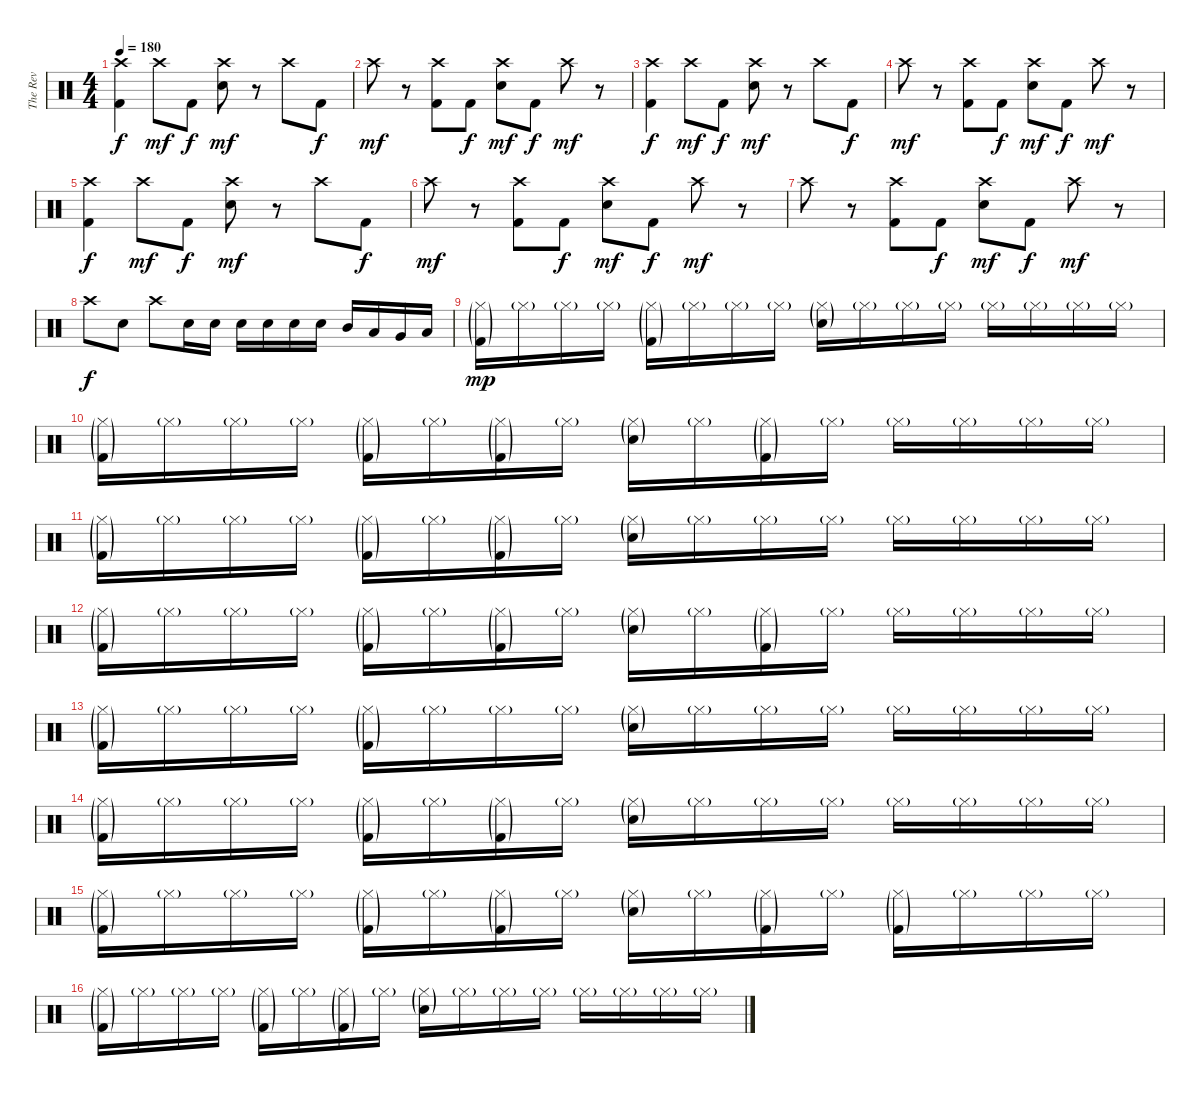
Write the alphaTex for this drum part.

\track ("The Rev" "The Rev") {instrument percussion}
\staff {score}
\articulation defaults
\ts (4 4)
\tempo 180
\clef neutral
\ks c
("Crash high (hit)" "Kick (hit) 2").4{dy f} "Crash high (hit)".8{dy mf} "Kick (hit) 2".8{dy f} ("Crash high (hit)" "Snare (hit) 2").8{dy mf} r.8 "Crash high (hit)".8 "Kick (hit) 2".8{dy f} |
"Crash high (hit)".8{dy mf} r.8 ("Crash high (hit)" "Kick (hit) 2").8 "Kick (hit) 2".8{dy f} ("Crash high (hit)" "Snare (hit) 2").8{dy mf} "Kick (hit) 2".8{dy f} "Crash high (hit)".8{dy mf} r.8 |
("Crash high (hit)" "Kick (hit) 2").4{dy f} "Crash high (hit)".8{dy mf} "Kick (hit) 2".8{dy f} ("Crash high (hit)" "Snare (hit) 2").8{dy mf} r.8 "Crash high (hit)".8 "Kick (hit) 2".8{dy f} |
"Crash high (hit)".8{dy mf} r.8 ("Crash high (hit)" "Kick (hit) 2").8 "Kick (hit) 2".8{dy f} ("Crash high (hit)" "Snare (hit) 2").8{dy mf} "Kick (hit) 2".8{dy f} "Crash high (hit)".8{dy mf} r.8 |
("Crash high (hit)" "Kick (hit) 2").4{dy f} "Crash high (hit)".8{dy mf} "Kick (hit) 2".8{dy f} ("Crash high (hit)" "Snare (hit) 2").8{dy mf} r.8 "Crash high (hit)".8 "Kick (hit) 2".8{dy f} |
"Crash high (hit)".8{dy mf} r.8 ("Crash high (hit)" "Kick (hit) 2").8 "Kick (hit) 2".8{dy f} ("Crash high (hit)" "Snare (hit) 2").8{dy mf} "Kick (hit) 2".8{dy f} "Crash high (hit)".8{dy mf} r.8 |
"Crash high (hit)".8 r.8 ("Crash high (hit)" "Kick (hit) 2").8 "Kick (hit) 2".8{dy f} ("Crash high (hit)" "Snare (hit) 2").8{dy mf} "Kick (hit) 2".8{dy f} "Crash high (hit)".8{dy mf} r.8 |
"Crash high (hit)".8{dy f} "Snare (hit) 2".8 "Crash high (hit)".8 "Snare (hit) 2".16 "Snare (hit) 2".16 "Snare (hit) 2".16 "Snare (hit) 2".16 "Snare (hit) 2".16 "Snare (hit) 2".16 "Mid Tom (hit)".16 "Low Tom (hit)".16 "Very Low Tom (hit)".16 "Low Floor Tom (hit)".16 |
("Hi-Hat (closed)"{g} "Kick (hit) 2"{g}).16{dy mp} "Hi-Hat (closed)"{g}.16 "Hi-Hat (closed)"{g}.16 "Hi-Hat (closed)"{g}.16 ("Hi-Hat (closed)"{g} "Kick (hit) 2"{g}).16 "Hi-Hat (closed)"{g}.16 "Hi-Hat (closed)"{g}.16 "Hi-Hat (closed)"{g}.16 ("Hi-Hat (closed)"{g} "Snare (hit) 2"{g}).16 "Hi-Hat (closed)"{g}.16 "Hi-Hat (closed)"{g}.16 "Hi-Hat (closed)"{g}.16 "Hi-Hat (closed)"{g}.16 "Hi-Hat (closed)"{g}.16 "Hi-Hat (closed)"{g}.16 "Hi-Hat (closed)"{g}.16 |
("Hi-Hat (closed)"{g} "Kick (hit) 2"{g}).16 "Hi-Hat (closed)"{g}.16 "Hi-Hat (closed)"{g}.16 "Hi-Hat (closed)"{g}.16 ("Hi-Hat (closed)"{g} "Kick (hit) 2"{g}).16 "Hi-Hat (closed)"{g}.16 ("Hi-Hat (closed)"{g} "Kick (hit) 2"{g}).16 "Hi-Hat (closed)"{g}.16 ("Hi-Hat (closed)"{g} "Snare (hit) 2"{g}).16 "Hi-Hat (closed)"{g}.16 ("Hi-Hat (closed)"{g} "Kick (hit) 2"{g}).16 "Hi-Hat (closed)"{g}.16 "Hi-Hat (closed)"{g}.16 "Hi-Hat (closed)"{g}.16 "Hi-Hat (closed)"{g}.16 "Hi-Hat (closed)"{g}.16 |
("Hi-Hat (closed)"{g} "Kick (hit) 2"{g}).16 "Hi-Hat (closed)"{g}.16 "Hi-Hat (closed)"{g}.16 "Hi-Hat (closed)"{g}.16 ("Hi-Hat (closed)"{g} "Kick (hit) 2"{g}).16 "Hi-Hat (closed)"{g}.16 ("Hi-Hat (closed)"{g} "Kick (hit) 2"{g}).16 "Hi-Hat (closed)"{g}.16 ("Hi-Hat (closed)"{g} "Snare (hit) 2"{g}).16 "Hi-Hat (closed)"{g}.16 "Hi-Hat (closed)"{g}.16 "Hi-Hat (closed)"{g}.16 "Hi-Hat (closed)"{g}.16 "Hi-Hat (closed)"{g}.16 "Hi-Hat (closed)"{g}.16 "Hi-Hat (closed)"{g}.16 |
("Hi-Hat (closed)"{g} "Kick (hit) 2"{g}).16 "Hi-Hat (closed)"{g}.16 "Hi-Hat (closed)"{g}.16 "Hi-Hat (closed)"{g}.16 ("Hi-Hat (closed)"{g} "Kick (hit) 2"{g}).16 "Hi-Hat (closed)"{g}.16 ("Hi-Hat (closed)"{g} "Kick (hit) 2"{g}).16 "Hi-Hat (closed)"{g}.16 ("Hi-Hat (closed)"{g} "Snare (hit) 2"{g}).16 "Hi-Hat (closed)"{g}.16 ("Hi-Hat (closed)"{g} "Kick (hit) 2"{g}).16 "Hi-Hat (closed)"{g}.16 "Hi-Hat (closed)"{g}.16 "Hi-Hat (closed)"{g}.16 "Hi-Hat (closed)"{g}.16 "Hi-Hat (closed)"{g}.16 |
("Hi-Hat (closed)"{g} "Kick (hit) 2"{g}).16 "Hi-Hat (closed)"{g}.16 "Hi-Hat (closed)"{g}.16 "Hi-Hat (closed)"{g}.16 ("Hi-Hat (closed)"{g} "Kick (hit) 2"{g}).16 "Hi-Hat (closed)"{g}.16 "Hi-Hat (closed)"{g}.16 "Hi-Hat (closed)"{g}.16 ("Hi-Hat (closed)"{g} "Snare (hit) 2"{g}).16 "Hi-Hat (closed)"{g}.16 "Hi-Hat (closed)"{g}.16 "Hi-Hat (closed)"{g}.16 "Hi-Hat (closed)"{g}.16 "Hi-Hat (closed)"{g}.16 "Hi-Hat (closed)"{g}.16 "Hi-Hat (closed)"{g}.16 |
("Hi-Hat (closed)"{g} "Kick (hit) 2"{g}).16 "Hi-Hat (closed)"{g}.16 "Hi-Hat (closed)"{g}.16 "Hi-Hat (closed)"{g}.16 ("Hi-Hat (closed)"{g} "Kick (hit) 2"{g}).16 "Hi-Hat (closed)"{g}.16 ("Hi-Hat (closed)"{g} "Kick (hit) 2"{g}).16 "Hi-Hat (closed)"{g}.16 ("Hi-Hat (closed)"{g} "Snare (hit) 2"{g}).16 "Hi-Hat (closed)"{g}.16 "Hi-Hat (closed)"{g}.16 "Hi-Hat (closed)"{g}.16 "Hi-Hat (closed)"{g}.16 "Hi-Hat (closed)"{g}.16 "Hi-Hat (closed)"{g}.16 "Hi-Hat (closed)"{g}.16 |
("Hi-Hat (closed)"{g} "Kick (hit) 2"{g}).16 "Hi-Hat (closed)"{g}.16 "Hi-Hat (closed)"{g}.16 "Hi-Hat (closed)"{g}.16 ("Hi-Hat (closed)"{g} "Kick (hit) 2"{g}).16 "Hi-Hat (closed)"{g}.16 ("Hi-Hat (closed)"{g} "Kick (hit) 2"{g}).16 "Hi-Hat (closed)"{g}.16 ("Hi-Hat (closed)"{g} "Snare (hit) 2"{g}).16 "Hi-Hat (closed)"{g}.16 ("Hi-Hat (closed)"{g} "Kick (hit) 2"{g}).16 "Hi-Hat (closed)"{g}.16 ("Hi-Hat (closed)"{g} "Kick (hit) 2"{g}).16 "Hi-Hat (closed)"{g}.16 "Hi-Hat (closed)"{g}.16 "Hi-Hat (closed)"{g}.16 |
("Hi-Hat (closed)"{g} "Kick (hit) 2"{g}).16 "Hi-Hat (closed)"{g}.16 "Hi-Hat (closed)"{g}.16 "Hi-Hat (closed)"{g}.16 ("Hi-Hat (closed)"{g} "Kick (hit) 2"{g}).16 "Hi-Hat (closed)"{g}.16 ("Hi-Hat (closed)"{g} "Kick (hit) 2"{g}).16 "Hi-Hat (closed)"{g}.16 ("Hi-Hat (closed)"{g} "Snare (hit) 2"{g}).16 "Hi-Hat (closed)"{g}.16 "Hi-Hat (closed)"{g}.16 "Hi-Hat (closed)"{g}.16 "Hi-Hat (closed)"{g}.16 "Hi-Hat (closed)"{g}.16 "Hi-Hat (closed)"{g}.16 "Hi-Hat (closed)"{g}.16
